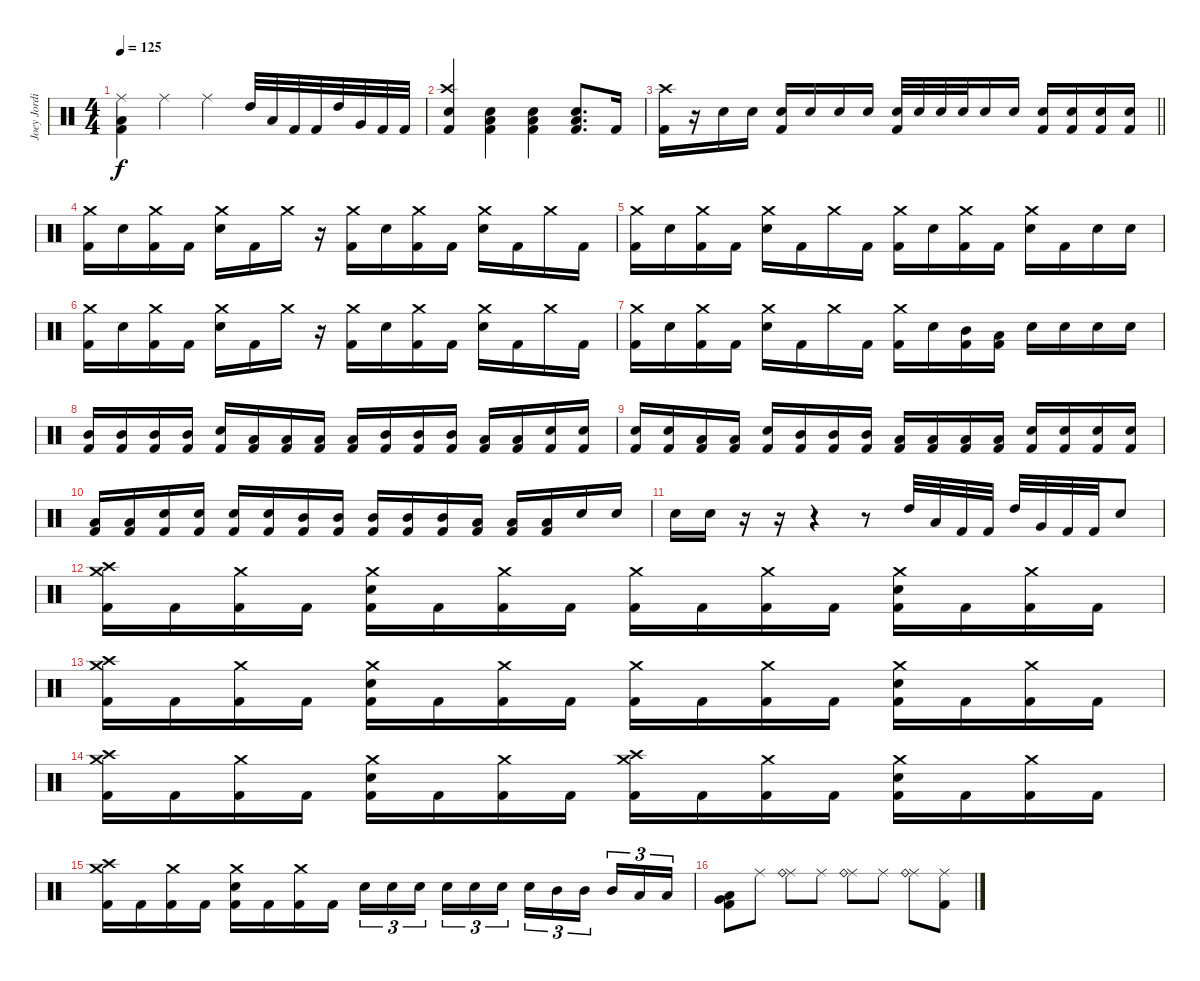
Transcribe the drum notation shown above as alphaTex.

\track ("Joey Jordison" "Joey Jordi") {instrument percussion}
\staff {score}
\articulation defaults
\ts (4 4)
\tempo 125
\clef neutral
\ks c
("Ride (middle)" "Low Floor Tom (hit)" "Kick (hit) 2").4{dy f} "Ride (middle)".4 "Ride (middle)".4 "High Tom (hit)".32 "Low Tom (hit)".32 "Kick (hit) 2".32 "Kick (hit) 2".32 "High Tom (hit)".32 "Very Low Tom (hit)".32 "Kick (hit) 2".32 "Kick (hit) 2".32 |
("Crash high (hit)" "Snare (hit) 2" "Kick (hit) 2").4 ("Snare (hit) 2" "Low Floor Tom (hit)" "Kick (hit) 2").4 ("Snare (hit) 2" "Low Floor Tom (hit)" "Kick (hit) 2").4 ("Snare (hit) 2" "Low Floor Tom (hit)" "Kick (hit) 2").8{d} "Kick (hit) 2".16 |
\barLineRight lightlight
("Crash high (hit)" "Kick (hit) 2").16 r.16 "Snare (hit) 2".16 "Snare (hit) 2".16 ("Snare (hit) 2" "Kick (hit) 2").16 "Snare (hit) 2".16 "Snare (hit) 2".16 "Snare (hit) 2".16 ("Snare (hit) 2" "Kick (hit) 2").32 "Snare (hit) 2".32 "Snare (hit) 2".32 "Snare (hit) 2".32 "Snare (hit) 2".16 "Snare (hit) 2".16 ("Snare (hit) 2" "Kick (hit) 2").16 ("Snare (hit) 2" "Kick (hit) 2").16 ("Snare (hit) 2" "Kick (hit) 2").16 ("Snare (hit) 2" "Kick (hit) 2").16 |
("Crash medium (hit)" "Kick (hit) 2").16 "Snare (hit) 2".16 ("Crash medium (hit)" "Kick (hit) 2").16 "Kick (hit) 2".16 ("Crash medium (hit)" "Snare (hit) 2").16 "Kick (hit) 2".16 "Crash medium (hit)".16 r.16 ("Crash medium (hit)" "Kick (hit) 2").16 "Snare (hit) 2".16 ("Crash medium (hit)" "Kick (hit) 2").16 "Kick (hit) 2".16 ("Crash medium (hit)" "Snare (hit) 2").16 "Kick (hit) 2".16 "Crash medium (hit)".16 "Kick (hit) 2".16 |
("Crash medium (hit)" "Kick (hit) 2").16 "Snare (hit) 2".16 ("Crash medium (hit)" "Kick (hit) 2").16 "Kick (hit) 2".16 ("Crash medium (hit)" "Snare (hit) 2").16 "Kick (hit) 2".16 "Crash medium (hit)".16 "Kick (hit) 2".16 ("Crash medium (hit)" "Kick (hit) 2").16 "Snare (hit) 2".16 ("Crash medium (hit)" "Kick (hit) 2").16 "Kick (hit) 2".16 ("Crash medium (hit)" "Snare (hit) 2").16 "Kick (hit) 2".16 "Snare (hit) 2".16 "Snare (hit) 2".16 |
("Crash medium (hit)" "Kick (hit) 2").16 "Snare (hit) 2".16 ("Crash medium (hit)" "Kick (hit) 2").16 "Kick (hit) 2".16 ("Crash medium (hit)" "Snare (hit) 2").16 "Kick (hit) 2".16 "Crash medium (hit)".16 r.16 ("Crash medium (hit)" "Kick (hit) 2").16 "Snare (hit) 2".16 ("Crash medium (hit)" "Kick (hit) 2").16 "Kick (hit) 2".16 ("Crash medium (hit)" "Snare (hit) 2").16 "Kick (hit) 2".16 "Crash medium (hit)".16 "Kick (hit) 2".16 |
("Crash medium (hit)" "Kick (hit) 2").16 "Snare (hit) 2".16 ("Crash medium (hit)" "Kick (hit) 2").16 "Kick (hit) 2".16 ("Crash medium (hit)" "Snare (hit) 2").16 "Kick (hit) 2".16 "Crash medium (hit)".16 "Kick (hit) 2".16 ("Crash medium (hit)" "Kick (hit) 2").16 "Snare (hit) 2".16 ("Mid Tom (hit)" "Kick (hit) 2").16 ("Low Tom (hit)" "Kick (hit) 2").16 "Snare (hit) 2".16 "Snare (hit) 2".16 "Snare (hit) 2".16 "Snare (hit) 2".16 |
("Mid Tom (hit)" "Kick (hit) 2").16 ("Mid Tom (hit)" "Kick (hit) 2").16 ("Mid Tom (hit)" "Kick (hit) 2").16 ("Mid Tom (hit)" "Kick (hit) 2").16 ("Snare (hit) 2" "Kick (hit) 2").16 ("Low Tom (hit)" "Kick (hit) 2").16 ("Low Tom (hit)" "Kick (hit) 2").16 ("Low Tom (hit)" "Kick (hit) 2").16 ("Low Tom (hit)" "Kick (hit) 2").16 ("Mid Tom (hit)" "Kick (hit) 2").16 ("Mid Tom (hit)" "Kick (hit) 2").16 ("Mid Tom (hit)" "Kick (hit) 2").16 ("Low Tom (hit)" "Kick (hit) 2").16 ("Low Tom (hit)" "Kick (hit) 2").16 ("Snare (hit) 2" "Kick (hit) 2").16 ("Snare (hit) 2" "Kick (hit) 2").16 |
("Snare (hit) 2" "Kick (hit) 2").16 ("Snare (hit) 2" "Kick (hit) 2").16 ("Low Tom (hit)" "Kick (hit) 2").16 ("Low Tom (hit)" "Kick (hit) 2").16 ("Snare (hit) 2" "Kick (hit) 2").16 ("Mid Tom (hit)" "Kick (hit) 2").16 ("Mid Tom (hit)" "Kick (hit) 2").16 ("Mid Tom (hit)" "Kick (hit) 2").16 ("Low Tom (hit)" "Kick (hit) 2").16 ("Low Tom (hit)" "Kick (hit) 2").16 ("Low Tom (hit)" "Kick (hit) 2").16 ("Low Tom (hit)" "Kick (hit) 2").16 ("Snare (hit) 2" "Kick (hit) 2").16 ("Snare (hit) 2" "Kick (hit) 2").16 ("Snare (hit) 2" "Kick (hit) 2").16 ("Snare (hit) 2" "Kick (hit) 2").16 |
("Low Tom (hit)" "Kick (hit) 2").16 ("Low Tom (hit)" "Kick (hit) 2").16 ("Snare (hit) 2" "Kick (hit) 2").16 ("Snare (hit) 2" "Kick (hit) 2").16 ("Snare (hit) 2" "Kick (hit) 2").16 ("Snare (hit) 2" "Kick (hit) 2").16 ("Mid Tom (hit)" "Kick (hit) 2").16 ("Mid Tom (hit)" "Kick (hit) 2").16 ("Mid Tom (hit)" "Kick (hit) 2").16 ("Mid Tom (hit)" "Kick (hit) 2").16 ("Mid Tom (hit)" "Kick (hit) 2").16 ("Low Tom (hit)" "Kick (hit) 2").16 ("Low Tom (hit)" "Kick (hit) 2").16 ("Low Tom (hit)" "Kick (hit) 2").16 "Snare (hit) 2".16 "Snare (hit) 2".16 |
"Snare (hit) 2".16 "Snare (hit) 2".16 r.16 r.16 r.4 r.8 "High Tom (hit)".32 "Low Tom (hit)".32 "Kick (hit) 2".32 "Kick (hit) 2".32 "High Tom (hit)".32 "Very Low Tom (hit)".32 "Kick (hit) 2".32 "Kick (hit) 2".32 "Snare (hit) 2".8 |
("Crash medium (hit)" "Crash high (hit)" "Kick (hit) 2").16 "Kick (hit) 2".16 ("Crash medium (hit)" "Kick (hit) 2").16 "Kick (hit) 2".16 ("Crash medium (hit)" "Snare (hit) 2" "Kick (hit) 2").16 "Kick (hit) 2".16 ("Crash medium (hit)" "Kick (hit) 2").16 "Kick (hit) 2".16 ("Crash medium (hit)" "Kick (hit) 2").16 "Kick (hit) 2".16 ("Crash medium (hit)" "Kick (hit) 2").16 "Kick (hit) 2".16 ("Crash medium (hit)" "Snare (hit) 2" "Kick (hit) 2").16 "Kick (hit) 2".16 ("Crash medium (hit)" "Kick (hit) 2").16 "Kick (hit) 2".16 |
("Crash medium (hit)" "Crash high (hit)" "Kick (hit) 2").16 "Kick (hit) 2".16 ("Crash medium (hit)" "Kick (hit) 2").16 "Kick (hit) 2".16 ("Crash medium (hit)" "Snare (hit) 2" "Kick (hit) 2").16 "Kick (hit) 2".16 ("Crash medium (hit)" "Kick (hit) 2").16 "Kick (hit) 2".16 ("Crash medium (hit)" "Kick (hit) 2").16 "Kick (hit) 2".16 ("Crash medium (hit)" "Kick (hit) 2").16 "Kick (hit) 2".16 ("Crash medium (hit)" "Snare (hit) 2" "Kick (hit) 2").16 "Kick (hit) 2".16 ("Crash medium (hit)" "Kick (hit) 2").16 "Kick (hit) 2".16 |
("Crash medium (hit)" "Crash high (hit)" "Kick (hit) 2").16 "Kick (hit) 2".16 ("Crash medium (hit)" "Kick (hit) 2").16 "Kick (hit) 2".16 ("Crash medium (hit)" "Snare (hit) 2" "Kick (hit) 2").16 "Kick (hit) 2".16 ("Crash medium (hit)" "Kick (hit) 2").16 "Kick (hit) 2".16 ("Crash medium (hit)" "Crash high (hit)" "Kick (hit) 2").16 "Kick (hit) 2".16 ("Crash medium (hit)" "Kick (hit) 2").16 "Kick (hit) 2".16 ("Crash medium (hit)" "Snare (hit) 2" "Kick (hit) 2").16 "Kick (hit) 2".16 ("Crash medium (hit)" "Kick (hit) 2").16 "Kick (hit) 2".16 |
("Crash medium (hit)" "Crash high (hit)" "Kick (hit) 2").16 "Kick (hit) 2".16 ("Crash medium (hit)" "Kick (hit) 2").16 "Kick (hit) 2".16 ("Crash medium (hit)" "Snare (hit) 2" "Kick (hit) 2").16 "Kick (hit) 2".16 ("Crash medium (hit)" "Kick (hit) 2").16 "Kick (hit) 2".16 "Snare (hit) 2".16{tu (3 2)} "Snare (hit) 2".16{tu (3 2)} "Snare (hit) 2".16{tu (3 2) beam splitsecondary} "Snare (hit) 2".16{tu (3 2)} "Snare (hit) 2".16{tu (3 2)} "Snare (hit) 2".16{tu (3 2)} "Snare (hit) 2".16{tu (3 2)} "Mid Tom (hit)".16{tu (3 2)} "Mid Tom (hit)".16{tu (3 2) beam splitsecondary} "Mid Tom (hit)".16{tu (3 2)} "Low Tom (hit)".16{tu (3 2)} "Low Tom (hit)".16{tu (3 2)} |
("Very Low Tom (hit)" "Low Floor Tom (hit)" "Kick (hit) 2").8 "Ride (middle)".8 ("Ride (middle)" "Ride (bell)").8 "Ride (middle)".8 ("Ride (middle)" "Ride (bell)").8 "Ride (middle)".8 ("Ride (middle)" "Ride (bell)").8 ("Ride (middle)" "Kick (hit) 2").8
